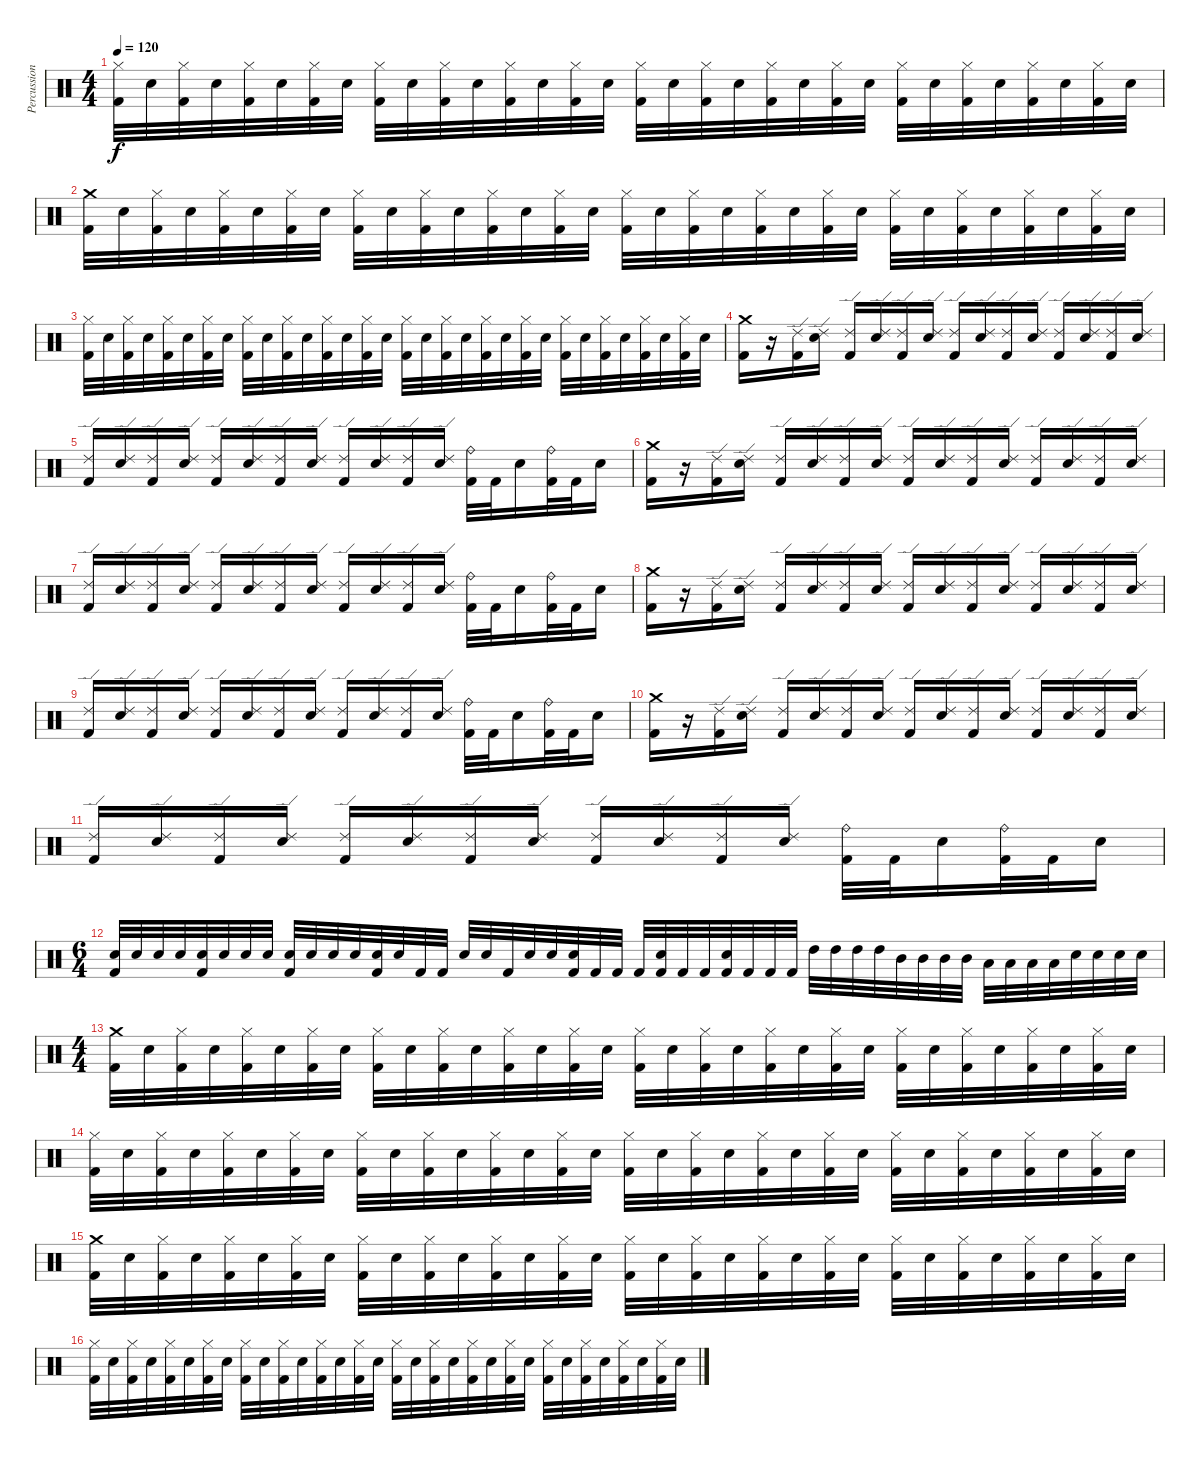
\track ("Percussion" "Percussion") {instrument percussion}
\staff {score}
\articulation defaults
\ts (4 4)
\tempo 120
\clef neutral
\ks c
("Kick (hit) 2" "Hi-Hat (closed)").32{dy f} "Snare (hit) 2".32 ("Kick (hit) 2" "Hi-Hat (closed)").32 "Snare (hit) 2".32 ("Kick (hit) 2" "Hi-Hat (closed)").32 "Snare (hit) 2".32 ("Kick (hit) 2" "Hi-Hat (closed)").32 "Snare (hit) 2".32 ("Kick (hit) 2" "Hi-Hat (closed)").32 "Snare (hit) 2".32 ("Kick (hit) 2" "Hi-Hat (closed)").32 "Snare (hit) 2".32 ("Kick (hit) 2" "Hi-Hat (closed)").32 "Snare (hit) 2".32 ("Kick (hit) 2" "Hi-Hat (closed)").32 "Snare (hit) 2".32 ("Kick (hit) 2" "Hi-Hat (closed)").32 "Snare (hit) 2".32 ("Kick (hit) 2" "Hi-Hat (closed)").32 "Snare (hit) 2".32 ("Kick (hit) 2" "Hi-Hat (closed)").32 "Snare (hit) 2".32 ("Kick (hit) 2" "Hi-Hat (closed)").32 "Snare (hit) 2".32 ("Kick (hit) 2" "Hi-Hat (closed)").32 "Snare (hit) 2".32 ("Kick (hit) 2" "Hi-Hat (closed)").32 "Snare (hit) 2".32 ("Kick (hit) 2" "Hi-Hat (closed)").32 "Snare (hit) 2".32 ("Kick (hit) 2" "Hi-Hat (closed)").32 "Snare (hit) 2".32 |
("Kick (hit) 2" "Crash medium (hit)").32 "Snare (hit) 2".32 ("Kick (hit) 2" "Hi-Hat (closed)").32 "Snare (hit) 2".32 ("Kick (hit) 2" "Hi-Hat (closed)").32 "Snare (hit) 2".32 ("Kick (hit) 2" "Hi-Hat (closed)").32 "Snare (hit) 2".32 ("Kick (hit) 2" "Hi-Hat (closed)").32 "Snare (hit) 2".32 ("Kick (hit) 2" "Hi-Hat (closed)").32 "Snare (hit) 2".32 ("Kick (hit) 2" "Hi-Hat (closed)").32 "Snare (hit) 2".32 ("Kick (hit) 2" "Hi-Hat (closed)").32 "Snare (hit) 2".32 ("Kick (hit) 2" "Hi-Hat (closed)").32 "Snare (hit) 2".32 ("Kick (hit) 2" "Hi-Hat (closed)").32 "Snare (hit) 2".32 ("Kick (hit) 2" "Hi-Hat (closed)").32 "Snare (hit) 2".32 ("Kick (hit) 2" "Hi-Hat (closed)").32 "Snare (hit) 2".32 ("Kick (hit) 2" "Hi-Hat (closed)").32 "Snare (hit) 2".32 ("Kick (hit) 2" "Hi-Hat (closed)").32 "Snare (hit) 2".32 ("Kick (hit) 2" "Hi-Hat (closed)").32 "Snare (hit) 2".32 ("Kick (hit) 2" "Hi-Hat (closed)").32 "Snare (hit) 2".32 |
("Kick (hit) 2" "Hi-Hat (closed)").32 "Snare (hit) 2".32 ("Kick (hit) 2" "Hi-Hat (closed)").32 "Snare (hit) 2".32 ("Kick (hit) 2" "Hi-Hat (closed)").32 "Snare (hit) 2".32 ("Kick (hit) 2" "Hi-Hat (closed)").32 "Snare (hit) 2".32 ("Kick (hit) 2" "Hi-Hat (closed)").32 "Snare (hit) 2".32 ("Kick (hit) 2" "Hi-Hat (closed)").32 "Snare (hit) 2".32 ("Kick (hit) 2" "Hi-Hat (closed)").32 "Snare (hit) 2".32 ("Kick (hit) 2" "Hi-Hat (closed)").32 "Snare (hit) 2".32 ("Kick (hit) 2" "Hi-Hat (closed)").32 "Snare (hit) 2".32 ("Kick (hit) 2" "Hi-Hat (closed)").32 "Snare (hit) 2".32 ("Kick (hit) 2" "Hi-Hat (closed)").32 "Snare (hit) 2".32 ("Kick (hit) 2" "Hi-Hat (closed)").32 "Snare (hit) 2".32 ("Kick (hit) 2" "Hi-Hat (closed)").32 "Snare (hit) 2".32 ("Kick (hit) 2" "Hi-Hat (closed)").32 "Snare (hit) 2".32 ("Kick (hit) 2" "Hi-Hat (closed)").32 "Snare (hit) 2".32 ("Kick (hit) 2" "Hi-Hat (closed)").32 "Snare (hit) 2".32 |
("Kick (hit) 2" "Crash medium (hit)").16 r.16 ("Kick (hit) 2" "Ride (edge) 2").16 ("Snare (hit) 2" "Ride (edge) 2").16 ("Kick (hit) 2" "Ride (edge) 2").16 ("Snare (hit) 2" "Ride (edge) 2").16 ("Kick (hit) 2" "Ride (edge) 2").16 ("Snare (hit) 2" "Ride (edge) 2").16 ("Kick (hit) 2" "Ride (edge) 2").16 ("Snare (hit) 2" "Ride (edge) 2").16 ("Kick (hit) 2" "Ride (edge) 2").16 ("Snare (hit) 2" "Ride (edge) 2").16 ("Kick (hit) 2" "Ride (edge) 2").16 ("Snare (hit) 2" "Ride (edge) 2").16 ("Kick (hit) 2" "Ride (edge) 2").16 ("Snare (hit) 2" "Ride (edge) 2").16 |
("Kick (hit) 2" "Ride (edge) 2").16 ("Snare (hit) 2" "Ride (edge) 2").16 ("Kick (hit) 2" "Ride (edge) 2").16 ("Snare (hit) 2" "Ride (edge) 2").16 ("Kick (hit) 2" "Ride (edge) 2").16 ("Snare (hit) 2" "Ride (edge) 2").16 ("Kick (hit) 2" "Ride (edge) 2").16 ("Snare (hit) 2" "Ride (edge) 2").16 ("Kick (hit) 2" "Ride (edge) 2").16 ("Snare (hit) 2" "Ride (edge) 2").16 ("Kick (hit) 2" "Ride (edge) 2").16 ("Snare (hit) 2" "Ride (edge) 2").16 ("Kick (hit) 2" "Ride (bell)").32 "Kick (hit) 2".32 "Snare (hit) 2".16 ("Kick (hit) 2" "Ride (bell)").32 "Kick (hit) 2".32 "Snare (hit) 2".16 |
("Kick (hit) 2" "Crash medium (hit)").16 r.16 ("Kick (hit) 2" "Ride (edge) 2").16 ("Snare (hit) 2" "Ride (edge) 2").16 ("Kick (hit) 2" "Ride (edge) 2").16 ("Snare (hit) 2" "Ride (edge) 2").16 ("Kick (hit) 2" "Ride (edge) 2").16 ("Snare (hit) 2" "Ride (edge) 2").16 ("Kick (hit) 2" "Ride (edge) 2").16 ("Snare (hit) 2" "Ride (edge) 2").16 ("Kick (hit) 2" "Ride (edge) 2").16 ("Snare (hit) 2" "Ride (edge) 2").16 ("Kick (hit) 2" "Ride (edge) 2").16 ("Snare (hit) 2" "Ride (edge) 2").16 ("Kick (hit) 2" "Ride (edge) 2").16 ("Snare (hit) 2" "Ride (edge) 2").16 |
("Kick (hit) 2" "Ride (edge) 2").16 ("Snare (hit) 2" "Ride (edge) 2").16 ("Kick (hit) 2" "Ride (edge) 2").16 ("Snare (hit) 2" "Ride (edge) 2").16 ("Kick (hit) 2" "Ride (edge) 2").16 ("Snare (hit) 2" "Ride (edge) 2").16 ("Kick (hit) 2" "Ride (edge) 2").16 ("Snare (hit) 2" "Ride (edge) 2").16 ("Kick (hit) 2" "Ride (edge) 2").16 ("Snare (hit) 2" "Ride (edge) 2").16 ("Kick (hit) 2" "Ride (edge) 2").16 ("Snare (hit) 2" "Ride (edge) 2").16 ("Kick (hit) 2" "Ride (bell)").32 "Kick (hit) 2".32 "Snare (hit) 2".16 ("Kick (hit) 2" "Ride (bell)").32 "Kick (hit) 2".32 "Snare (hit) 2".16 |
("Kick (hit) 2" "Crash medium (hit)").16 r.16 ("Kick (hit) 2" "Ride (edge) 2").16 ("Snare (hit) 2" "Ride (edge) 2").16 ("Kick (hit) 2" "Ride (edge) 2").16 ("Snare (hit) 2" "Ride (edge) 2").16 ("Kick (hit) 2" "Ride (edge) 2").16 ("Snare (hit) 2" "Ride (edge) 2").16 ("Kick (hit) 2" "Ride (edge) 2").16 ("Snare (hit) 2" "Ride (edge) 2").16 ("Kick (hit) 2" "Ride (edge) 2").16 ("Snare (hit) 2" "Ride (edge) 2").16 ("Kick (hit) 2" "Ride (edge) 2").16 ("Snare (hit) 2" "Ride (edge) 2").16 ("Kick (hit) 2" "Ride (edge) 2").16 ("Snare (hit) 2" "Ride (edge) 2").16 |
("Kick (hit) 2" "Ride (edge) 2").16 ("Snare (hit) 2" "Ride (edge) 2").16 ("Kick (hit) 2" "Ride (edge) 2").16 ("Snare (hit) 2" "Ride (edge) 2").16 ("Kick (hit) 2" "Ride (edge) 2").16 ("Snare (hit) 2" "Ride (edge) 2").16 ("Kick (hit) 2" "Ride (edge) 2").16 ("Snare (hit) 2" "Ride (edge) 2").16 ("Kick (hit) 2" "Ride (edge) 2").16 ("Snare (hit) 2" "Ride (edge) 2").16 ("Kick (hit) 2" "Ride (edge) 2").16 ("Snare (hit) 2" "Ride (edge) 2").16 ("Kick (hit) 2" "Ride (bell)").32 "Kick (hit) 2".32 "Snare (hit) 2".16 ("Kick (hit) 2" "Ride (bell)").32 "Kick (hit) 2".32 "Snare (hit) 2".16 |
("Kick (hit) 2" "Crash medium (hit)").16 r.16 ("Kick (hit) 2" "Ride (edge) 2").16 ("Snare (hit) 2" "Ride (edge) 2").16 ("Kick (hit) 2" "Ride (edge) 2").16 ("Snare (hit) 2" "Ride (edge) 2").16 ("Kick (hit) 2" "Ride (edge) 2").16 ("Snare (hit) 2" "Ride (edge) 2").16 ("Kick (hit) 2" "Ride (edge) 2").16 ("Snare (hit) 2" "Ride (edge) 2").16 ("Kick (hit) 2" "Ride (edge) 2").16 ("Snare (hit) 2" "Ride (edge) 2").16 ("Kick (hit) 2" "Ride (edge) 2").16 ("Snare (hit) 2" "Ride (edge) 2").16 ("Kick (hit) 2" "Ride (edge) 2").16 ("Snare (hit) 2" "Ride (edge) 2").16 |
("Kick (hit) 2" "Ride (edge) 2").16 ("Snare (hit) 2" "Ride (edge) 2").16 ("Kick (hit) 2" "Ride (edge) 2").16 ("Snare (hit) 2" "Ride (edge) 2").16 ("Kick (hit) 2" "Ride (edge) 2").16 ("Snare (hit) 2" "Ride (edge) 2").16 ("Kick (hit) 2" "Ride (edge) 2").16 ("Snare (hit) 2" "Ride (edge) 2").16 ("Kick (hit) 2" "Ride (edge) 2").16 ("Snare (hit) 2" "Ride (edge) 2").16 ("Kick (hit) 2" "Ride (edge) 2").16 ("Snare (hit) 2" "Ride (edge) 2").16 ("Kick (hit) 2" "Ride (bell)").32 "Kick (hit) 2".32 "Snare (hit) 2".16 ("Kick (hit) 2" "Ride (bell)").32 "Kick (hit) 2".32 "Snare (hit) 2".16 |
\ts (6 4)
("Snare (hit) 2" "Kick (hit) 2").32 "Snare (hit) 2".32 "Snare (hit) 2".32 "Snare (hit) 2".32 ("Snare (hit) 2" "Kick (hit) 2").32 "Snare (hit) 2".32 "Snare (hit) 2".32 "Snare (hit) 2".32 ("Snare (hit) 2" "Kick (hit) 2").32 "Snare (hit) 2".32 "Snare (hit) 2".32 "Snare (hit) 2".32 ("Snare (hit) 2" "Kick (hit) 2").32 "Snare (hit) 2".32 "Kick (hit) 2".32 "Kick (hit) 2".32 "Snare (hit) 2".32 "Snare (hit) 2".32 "Kick (hit) 2".32 "Snare (hit) 2".32 "Snare (hit) 2".32 ("Kick (hit) 2" "Snare (hit) 2").32 "Kick (hit) 2".32 "Kick (hit) 2".32 "Kick (hit) 2".32 ("Kick (hit) 2" "Snare (hit) 2").32 "Kick (hit) 2".32 "Kick (hit) 2".32 ("Kick (hit) 2" "Snare (hit) 2").32 "Kick (hit) 2".32 "Kick (hit) 2".32 "Kick (hit) 2".32 "High Tom (hit)".32 "High Tom (hit)".32 "High Tom (hit)".32 "High Tom (hit)".32 "Mid Tom (hit)".32 "Mid Tom (hit)".32 "Mid Tom (hit)".32 "Mid Tom (hit)".32 "Low Tom (hit)".32 "Low Tom (hit)".32 "Low Tom (hit)".32 "Low Tom (hit)".32 "Snare (hit) 2".32 "Snare (hit) 2".32 "Snare (hit) 2".32 "Snare (hit) 2".32 |
\ts (4 4)
("Kick (hit) 2" "Crash medium (hit)").32 "Snare (hit) 2".32 ("Kick (hit) 2" "Hi-Hat (closed)").32 "Snare (hit) 2".32 ("Kick (hit) 2" "Hi-Hat (closed)").32 "Snare (hit) 2".32 ("Kick (hit) 2" "Hi-Hat (closed)").32 "Snare (hit) 2".32 ("Kick (hit) 2" "Hi-Hat (closed)").32 "Snare (hit) 2".32 ("Kick (hit) 2" "Hi-Hat (closed)").32 "Snare (hit) 2".32 ("Kick (hit) 2" "Hi-Hat (closed)").32 "Snare (hit) 2".32 ("Kick (hit) 2" "Hi-Hat (closed)").32 "Snare (hit) 2".32 ("Kick (hit) 2" "Hi-Hat (closed)").32 "Snare (hit) 2".32 ("Kick (hit) 2" "Hi-Hat (closed)").32 "Snare (hit) 2".32 ("Kick (hit) 2" "Hi-Hat (closed)").32 "Snare (hit) 2".32 ("Kick (hit) 2" "Hi-Hat (closed)").32 "Snare (hit) 2".32 ("Kick (hit) 2" "Hi-Hat (closed)").32 "Snare (hit) 2".32 ("Kick (hit) 2" "Hi-Hat (closed)").32 "Snare (hit) 2".32 ("Kick (hit) 2" "Hi-Hat (closed)").32 "Snare (hit) 2".32 ("Kick (hit) 2" "Hi-Hat (closed)").32 "Snare (hit) 2".32 |
("Kick (hit) 2" "Hi-Hat (closed)").32 "Snare (hit) 2".32 ("Kick (hit) 2" "Hi-Hat (closed)").32 "Snare (hit) 2".32 ("Kick (hit) 2" "Hi-Hat (closed)").32 "Snare (hit) 2".32 ("Kick (hit) 2" "Hi-Hat (closed)").32 "Snare (hit) 2".32 ("Kick (hit) 2" "Hi-Hat (closed)").32 "Snare (hit) 2".32 ("Kick (hit) 2" "Hi-Hat (closed)").32 "Snare (hit) 2".32 ("Kick (hit) 2" "Hi-Hat (closed)").32 "Snare (hit) 2".32 ("Kick (hit) 2" "Hi-Hat (closed)").32 "Snare (hit) 2".32 ("Kick (hit) 2" "Hi-Hat (closed)").32 "Snare (hit) 2".32 ("Kick (hit) 2" "Hi-Hat (closed)").32 "Snare (hit) 2".32 ("Kick (hit) 2" "Hi-Hat (closed)").32 "Snare (hit) 2".32 ("Kick (hit) 2" "Hi-Hat (closed)").32 "Snare (hit) 2".32 ("Kick (hit) 2" "Hi-Hat (closed)").32 "Snare (hit) 2".32 ("Kick (hit) 2" "Hi-Hat (closed)").32 "Snare (hit) 2".32 ("Kick (hit) 2" "Hi-Hat (closed)").32 "Snare (hit) 2".32 ("Kick (hit) 2" "Hi-Hat (closed)").32 "Snare (hit) 2".32 |
("Kick (hit) 2" "Crash medium (hit)").32 "Snare (hit) 2".32 ("Kick (hit) 2" "Hi-Hat (closed)").32 "Snare (hit) 2".32 ("Kick (hit) 2" "Hi-Hat (closed)").32 "Snare (hit) 2".32 ("Kick (hit) 2" "Hi-Hat (closed)").32 "Snare (hit) 2".32 ("Kick (hit) 2" "Hi-Hat (closed)").32 "Snare (hit) 2".32 ("Kick (hit) 2" "Hi-Hat (closed)").32 "Snare (hit) 2".32 ("Kick (hit) 2" "Hi-Hat (closed)").32 "Snare (hit) 2".32 ("Kick (hit) 2" "Hi-Hat (closed)").32 "Snare (hit) 2".32 ("Kick (hit) 2" "Hi-Hat (closed)").32 "Snare (hit) 2".32 ("Kick (hit) 2" "Hi-Hat (closed)").32 "Snare (hit) 2".32 ("Kick (hit) 2" "Hi-Hat (closed)").32 "Snare (hit) 2".32 ("Kick (hit) 2" "Hi-Hat (closed)").32 "Snare (hit) 2".32 ("Kick (hit) 2" "Hi-Hat (closed)").32 "Snare (hit) 2".32 ("Kick (hit) 2" "Hi-Hat (closed)").32 "Snare (hit) 2".32 ("Kick (hit) 2" "Hi-Hat (closed)").32 "Snare (hit) 2".32 ("Kick (hit) 2" "Hi-Hat (closed)").32 "Snare (hit) 2".32 |
("Kick (hit) 2" "Hi-Hat (closed)").32 "Snare (hit) 2".32 ("Kick (hit) 2" "Hi-Hat (closed)").32 "Snare (hit) 2".32 ("Kick (hit) 2" "Hi-Hat (closed)").32 "Snare (hit) 2".32 ("Kick (hit) 2" "Hi-Hat (closed)").32 "Snare (hit) 2".32 ("Kick (hit) 2" "Hi-Hat (closed)").32 "Snare (hit) 2".32 ("Kick (hit) 2" "Hi-Hat (closed)").32 "Snare (hit) 2".32 ("Kick (hit) 2" "Hi-Hat (closed)").32 "Snare (hit) 2".32 ("Kick (hit) 2" "Hi-Hat (closed)").32 "Snare (hit) 2".32 ("Kick (hit) 2" "Hi-Hat (closed)").32 "Snare (hit) 2".32 ("Kick (hit) 2" "Hi-Hat (closed)").32 "Snare (hit) 2".32 ("Kick (hit) 2" "Hi-Hat (closed)").32 "Snare (hit) 2".32 ("Kick (hit) 2" "Hi-Hat (closed)").32 "Snare (hit) 2".32 ("Kick (hit) 2" "Hi-Hat (closed)").32 "Snare (hit) 2".32 ("Kick (hit) 2" "Hi-Hat (closed)").32 "Snare (hit) 2".32 ("Kick (hit) 2" "Hi-Hat (closed)").32 "Snare (hit) 2".32 ("Kick (hit) 2" "Hi-Hat (closed)").32 "Snare (hit) 2".32
